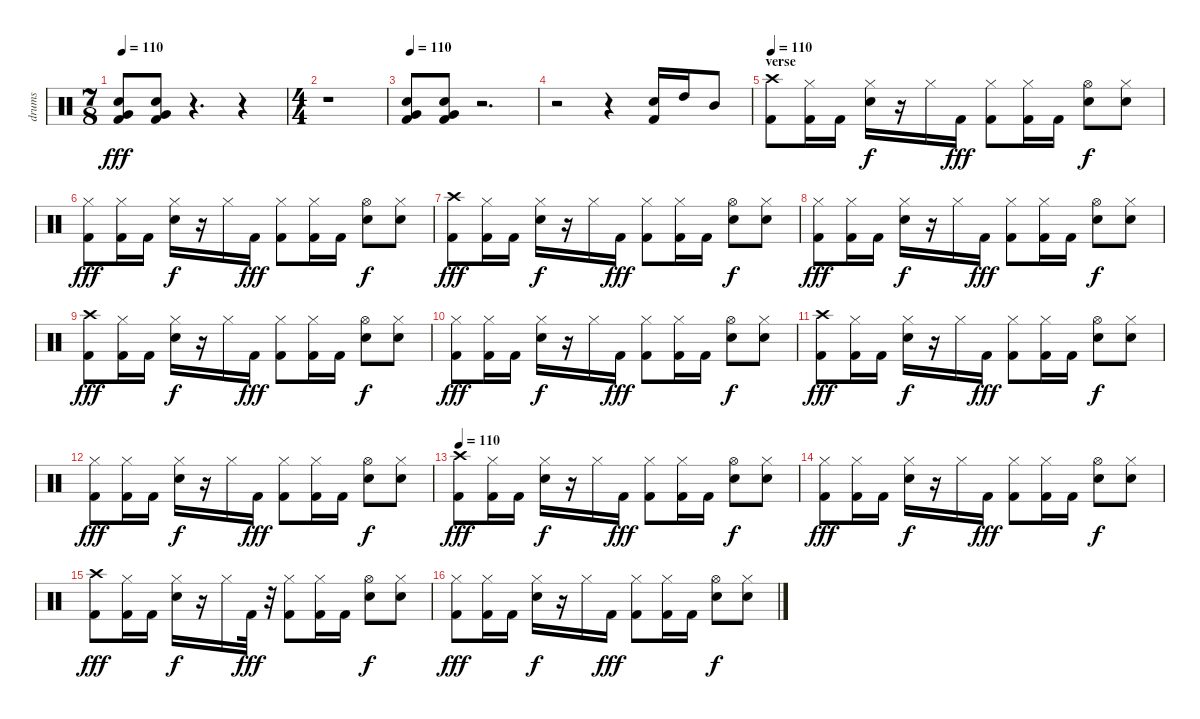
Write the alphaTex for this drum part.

\track ("drums" "drums") {instrument percussion}
\staff {score}
\articulation defaults
\ts (7 8)
\tempo 110
\clef neutral
\ks c
("Very Low Tom (hit)" "Snare (hit) 2" "Kick (hit) 2").8{dy fff} ("Very Low Tom (hit)" "Snare (hit) 2" "Kick (hit) 2").8 r.4{d} r.4 |
\ts (4 4)
r.1 |
\tempo 110
("Very Low Tom (hit)" "Snare (hit) 2" "Kick (hit) 2").8 ("Very Low Tom (hit)" "Snare (hit) 2" "Kick (hit) 2").8 r.2{d} |
r.2 r.4 ("Snare (hit) 2" "Kick (hit) 2").16 "High Tom (hit)".16 "Mid Tom (hit)".8 |
\section ("" "verse")
\tempo 110
("Crash high (hit)" "Kick (hit) 2").8 ("Hi-Hat (closed)" "Kick (hit) 2").16 "Kick (hit) 2".16 ("Hi-Hat (closed)" "Snare (hit) 2").16{dy f} r.16 "Hi-Hat (closed)".16 "Kick (hit) 2".16{dy fff} ("Hi-Hat (closed)" "Kick (hit) 2").8 ("Hi-Hat (closed)" "Kick (hit) 2").16 "Kick (hit) 2".16 ("Hi-Hat (open)" "Snare (hit) 2").8{dy f} ("Hi-Hat (closed)" "Snare (hit) 2").8 |
("Hi-Hat (closed)" "Kick (hit) 2").8{dy fff} ("Hi-Hat (closed)" "Kick (hit) 2").16 "Kick (hit) 2".16 ("Hi-Hat (closed)" "Snare (hit) 2").16{dy f} r.16 "Hi-Hat (closed)".16 "Kick (hit) 2".16{dy fff} ("Hi-Hat (closed)" "Kick (hit) 2").8 ("Hi-Hat (closed)" "Kick (hit) 2").16 "Kick (hit) 2".16 ("Hi-Hat (open)" "Snare (hit) 2").8{dy f} ("Hi-Hat (closed)" "Snare (hit) 2").8 |
("Crash high (hit)" "Kick (hit) 2").8{dy fff} ("Hi-Hat (closed)" "Kick (hit) 2").16 "Kick (hit) 2".16 ("Hi-Hat (closed)" "Snare (hit) 2").16{dy f} r.16 "Hi-Hat (closed)".16 "Kick (hit) 2".16{dy fff} ("Hi-Hat (closed)" "Kick (hit) 2").8 ("Hi-Hat (closed)" "Kick (hit) 2").16 "Kick (hit) 2".16 ("Hi-Hat (open)" "Snare (hit) 2").8{dy f} ("Hi-Hat (closed)" "Snare (hit) 2").8 |
("Hi-Hat (closed)" "Kick (hit) 2").8{dy fff} ("Hi-Hat (closed)" "Kick (hit) 2").16 "Kick (hit) 2".16 ("Hi-Hat (closed)" "Snare (hit) 2").16{dy f} r.16 "Hi-Hat (closed)".16 "Kick (hit) 2".16{dy fff} ("Hi-Hat (closed)" "Kick (hit) 2").8 ("Hi-Hat (closed)" "Kick (hit) 2").16 "Kick (hit) 2".16 ("Hi-Hat (open)" "Snare (hit) 2").8{dy f} ("Hi-Hat (closed)" "Snare (hit) 2").8 |
("Crash high (hit)" "Kick (hit) 2").8{dy fff} ("Hi-Hat (closed)" "Kick (hit) 2").16 "Kick (hit) 2".16 ("Hi-Hat (closed)" "Snare (hit) 2").16{dy f} r.16 "Hi-Hat (closed)".16 "Kick (hit) 2".16{dy fff} ("Hi-Hat (closed)" "Kick (hit) 2").8 ("Hi-Hat (closed)" "Kick (hit) 2").16 "Kick (hit) 2".16 ("Hi-Hat (open)" "Snare (hit) 2").8{dy f} ("Hi-Hat (closed)" "Snare (hit) 2").8 |
("Hi-Hat (closed)" "Kick (hit) 2").8{dy fff} ("Hi-Hat (closed)" "Kick (hit) 2").16 "Kick (hit) 2".16 ("Hi-Hat (closed)" "Snare (hit) 2").16{dy f} r.16 "Hi-Hat (closed)".16 "Kick (hit) 2".16{dy fff} ("Hi-Hat (closed)" "Kick (hit) 2").8 ("Hi-Hat (closed)" "Kick (hit) 2").16 "Kick (hit) 2".16 ("Hi-Hat (open)" "Snare (hit) 2").8{dy f} ("Hi-Hat (closed)" "Snare (hit) 2").8 |
("Crash high (hit)" "Kick (hit) 2").8{dy fff} ("Hi-Hat (closed)" "Kick (hit) 2").16 "Kick (hit) 2".16 ("Hi-Hat (closed)" "Snare (hit) 2").16{dy f} r.16 "Hi-Hat (closed)".16 "Kick (hit) 2".16{dy fff} ("Hi-Hat (closed)" "Kick (hit) 2").8 ("Hi-Hat (closed)" "Kick (hit) 2").16 "Kick (hit) 2".16 ("Hi-Hat (open)" "Snare (hit) 2").8{dy f} ("Hi-Hat (closed)" "Snare (hit) 2").8 |
("Hi-Hat (closed)" "Kick (hit) 2").8{dy fff} ("Hi-Hat (closed)" "Kick (hit) 2").16 "Kick (hit) 2".16 ("Hi-Hat (closed)" "Snare (hit) 2").16{dy f} r.16 "Hi-Hat (closed)".16 "Kick (hit) 2".16{dy fff} ("Hi-Hat (closed)" "Kick (hit) 2").8 ("Hi-Hat (closed)" "Kick (hit) 2").16 "Kick (hit) 2".16 ("Hi-Hat (open)" "Snare (hit) 2").8{dy f} ("Hi-Hat (closed)" "Snare (hit) 2").8 |
\tempo 110
("Crash high (hit)" "Kick (hit) 2").8{dy fff} ("Hi-Hat (closed)" "Kick (hit) 2").16 "Kick (hit) 2".16 ("Hi-Hat (closed)" "Snare (hit) 2").16{dy f} r.16 "Hi-Hat (closed)".16 "Kick (hit) 2".16{dy fff} ("Hi-Hat (closed)" "Kick (hit) 2").8 ("Hi-Hat (closed)" "Kick (hit) 2").16 "Kick (hit) 2".16 ("Hi-Hat (open)" "Snare (hit) 2").8{dy f} ("Hi-Hat (closed)" "Snare (hit) 2").8 |
("Hi-Hat (closed)" "Kick (hit) 2").8{dy fff} ("Hi-Hat (closed)" "Kick (hit) 2").16 "Kick (hit) 2".16 ("Hi-Hat (closed)" "Snare (hit) 2").16{dy f} r.16 "Hi-Hat (closed)".16 "Kick (hit) 2".16{dy fff} ("Hi-Hat (closed)" "Kick (hit) 2").8 ("Hi-Hat (closed)" "Kick (hit) 2").16 "Kick (hit) 2".16 ("Hi-Hat (open)" "Snare (hit) 2").8{dy f} ("Hi-Hat (closed)" "Snare (hit) 2").8 |
("Crash high (hit)" "Kick (hit) 2").8{dy fff} ("Hi-Hat (closed)" "Kick (hit) 2").16 "Kick (hit) 2".16 ("Hi-Hat (closed)" "Snare (hit) 2").16{dy f} r.16 "Hi-Hat (closed)".16 "Kick (hit) 2".32{dy fff} r.32 ("Hi-Hat (closed)" "Kick (hit) 2").8 ("Hi-Hat (closed)" "Kick (hit) 2").16 "Kick (hit) 2".16 ("Hi-Hat (open)" "Snare (hit) 2").8{dy f} ("Hi-Hat (closed)" "Snare (hit) 2").8 |
("Hi-Hat (closed)" "Kick (hit) 2").8{dy fff} ("Hi-Hat (closed)" "Kick (hit) 2").16 "Kick (hit) 2".16 ("Hi-Hat (closed)" "Snare (hit) 2").16{dy f} r.16 "Hi-Hat (closed)".16 "Kick (hit) 2".16{dy fff} ("Hi-Hat (closed)" "Kick (hit) 2").8 ("Hi-Hat (closed)" "Kick (hit) 2").16 "Kick (hit) 2".16 ("Hi-Hat (open)" "Snare (hit) 2").8{dy f} ("Hi-Hat (closed)" "Snare (hit) 2").8
